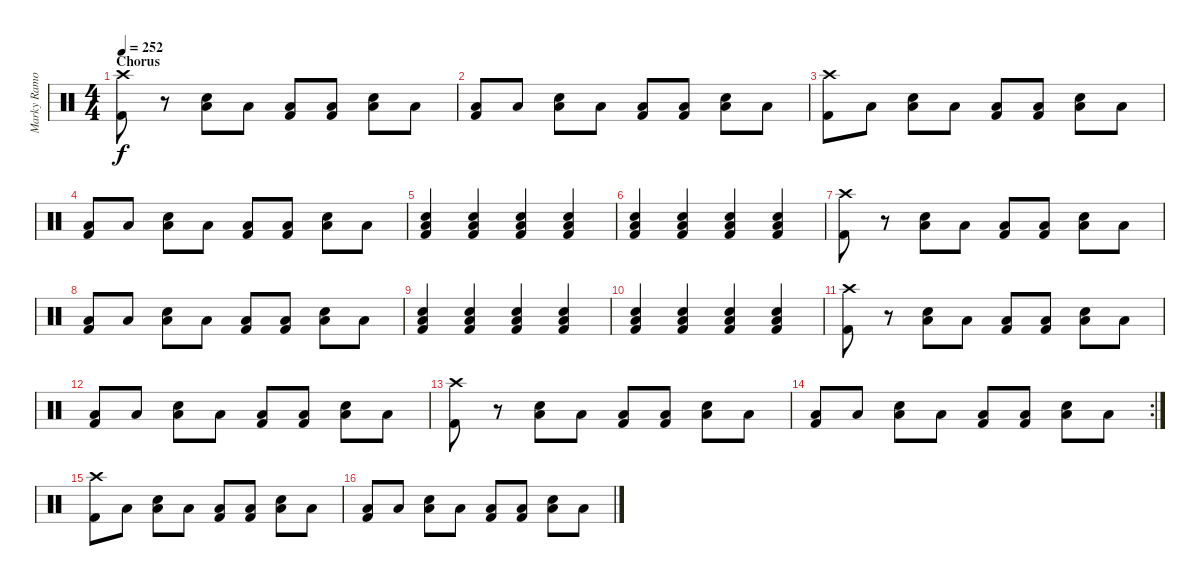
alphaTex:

\track ("Marky Ramone - Drums" "Marky Ramo") {instrument percussion}
\staff {score}
\articulation defaults
\ts (4 4)
\section ("" "Chorus")
\tempo 252
\clef neutral
\ks c
("Crash high (hit)" "Kick (hit) 2").8{dy f} r.8{volume 10} ("Low Floor Tom (hit)" "Snare (hit) 2").8 "Low Floor Tom (hit)".8{volume 10} ("Low Floor Tom (hit)" "Kick (hit) 2").8 ("Low Floor Tom (hit)" "Kick (hit) 2").8{volume 10} ("Low Floor Tom (hit)" "Snare (hit) 2").8 "Low Floor Tom (hit)".8{volume 10} |
("Low Floor Tom (hit)" "Kick (hit) 2").8 "Low Floor Tom (hit)".8{volume 10} ("Low Floor Tom (hit)" "Snare (hit) 2").8 "Low Floor Tom (hit)".8{volume 10} ("Low Floor Tom (hit)" "Kick (hit) 2").8 ("Low Floor Tom (hit)" "Kick (hit) 2").8{volume 10} ("Low Floor Tom (hit)" "Snare (hit) 2").8 "Low Floor Tom (hit)".8{volume 10} |
("Crash high (hit)" "Kick (hit) 2").8 "Low Floor Tom (hit)".8{volume 10} ("Low Floor Tom (hit)" "Snare (hit) 2").8 "Low Floor Tom (hit)".8{volume 10} ("Low Floor Tom (hit)" "Kick (hit) 2").8 ("Low Floor Tom (hit)" "Kick (hit) 2").8{volume 10} ("Low Floor Tom (hit)" "Snare (hit) 2").8 "Low Floor Tom (hit)".8{volume 10} |
("Low Floor Tom (hit)" "Kick (hit) 2").8 "Low Floor Tom (hit)".8{volume 10} ("Low Floor Tom (hit)" "Snare (hit) 2").8 "Low Floor Tom (hit)".8{volume 10} ("Low Floor Tom (hit)" "Kick (hit) 2").8 ("Low Floor Tom (hit)" "Kick (hit) 2").8{volume 10} ("Low Floor Tom (hit)" "Snare (hit) 2").8 "Low Floor Tom (hit)".8{volume 10} |
("Low Floor Tom (hit)" "Snare (hit) 2" "Kick (hit) 2").4 ("Low Floor Tom (hit)" "Snare (hit) 2" "Kick (hit) 2").4 ("Low Floor Tom (hit)" "Snare (hit) 2" "Kick (hit) 2").4 ("Low Floor Tom (hit)" "Snare (hit) 2" "Kick (hit) 2").4 |
("Low Floor Tom (hit)" "Snare (hit) 2" "Kick (hit) 2").4 ("Low Floor Tom (hit)" "Snare (hit) 2" "Kick (hit) 2").4 ("Low Floor Tom (hit)" "Snare (hit) 2" "Kick (hit) 2").4 ("Low Floor Tom (hit)" "Snare (hit) 2" "Kick (hit) 2").4 |
("Crash high (hit)" "Kick (hit) 2").8 r.8{volume 10} ("Low Floor Tom (hit)" "Snare (hit) 2").8 "Low Floor Tom (hit)".8{volume 10} ("Low Floor Tom (hit)" "Kick (hit) 2").8 ("Low Floor Tom (hit)" "Kick (hit) 2").8{volume 10} ("Low Floor Tom (hit)" "Snare (hit) 2").8 "Low Floor Tom (hit)".8{volume 10} |
("Low Floor Tom (hit)" "Kick (hit) 2").8 "Low Floor Tom (hit)".8{volume 10} ("Low Floor Tom (hit)" "Snare (hit) 2").8 "Low Floor Tom (hit)".8{volume 10} ("Low Floor Tom (hit)" "Kick (hit) 2").8 ("Low Floor Tom (hit)" "Kick (hit) 2").8{volume 10} ("Low Floor Tom (hit)" "Snare (hit) 2").8 "Low Floor Tom (hit)".8{volume 10} |
("Low Floor Tom (hit)" "Snare (hit) 2" "Kick (hit) 2").4 ("Low Floor Tom (hit)" "Snare (hit) 2" "Kick (hit) 2").4 ("Low Floor Tom (hit)" "Snare (hit) 2" "Kick (hit) 2").4 ("Low Floor Tom (hit)" "Snare (hit) 2" "Kick (hit) 2").4 |
("Low Floor Tom (hit)" "Snare (hit) 2" "Kick (hit) 2").4 ("Low Floor Tom (hit)" "Snare (hit) 2" "Kick (hit) 2").4 ("Low Floor Tom (hit)" "Snare (hit) 2" "Kick (hit) 2").4 ("Low Floor Tom (hit)" "Snare (hit) 2" "Kick (hit) 2").4 |
("Crash high (hit)" "Kick (hit) 2").8 r.8{volume 10} ("Low Floor Tom (hit)" "Snare (hit) 2").8 "Low Floor Tom (hit)".8{volume 10} ("Low Floor Tom (hit)" "Kick (hit) 2").8 ("Low Floor Tom (hit)" "Kick (hit) 2").8{volume 10} ("Low Floor Tom (hit)" "Snare (hit) 2").8 "Low Floor Tom (hit)".8{volume 10} |
("Low Floor Tom (hit)" "Kick (hit) 2").8 "Low Floor Tom (hit)".8{volume 10} ("Low Floor Tom (hit)" "Snare (hit) 2").8 "Low Floor Tom (hit)".8{volume 10} ("Low Floor Tom (hit)" "Kick (hit) 2").8 ("Low Floor Tom (hit)" "Kick (hit) 2").8{volume 10} ("Low Floor Tom (hit)" "Snare (hit) 2").8 "Low Floor Tom (hit)".8{volume 10} |
("Crash high (hit)" "Kick (hit) 2").8 r.8{volume 10} ("Low Floor Tom (hit)" "Snare (hit) 2").8 "Low Floor Tom (hit)".8{volume 10} ("Low Floor Tom (hit)" "Kick (hit) 2").8 ("Low Floor Tom (hit)" "Kick (hit) 2").8{volume 10} ("Low Floor Tom (hit)" "Snare (hit) 2").8 "Low Floor Tom (hit)".8{volume 10} |
\rc 2
("Low Floor Tom (hit)" "Kick (hit) 2").8 "Low Floor Tom (hit)".8{volume 10} ("Low Floor Tom (hit)" "Snare (hit) 2").8 "Low Floor Tom (hit)".8{volume 10} ("Low Floor Tom (hit)" "Kick (hit) 2").8 ("Low Floor Tom (hit)" "Kick (hit) 2").8{volume 10} ("Low Floor Tom (hit)" "Snare (hit) 2").8 "Low Floor Tom (hit)".8{volume 10} |
("Crash high (hit)" "Kick (hit) 2").8 "Low Floor Tom (hit)".8{volume 10} ("Low Floor Tom (hit)" "Snare (hit) 2").8 "Low Floor Tom (hit)".8{volume 10} ("Low Floor Tom (hit)" "Kick (hit) 2").8 ("Low Floor Tom (hit)" "Kick (hit) 2").8{volume 10} ("Low Floor Tom (hit)" "Snare (hit) 2").8 "Low Floor Tom (hit)".8{volume 10} |
("Low Floor Tom (hit)" "Kick (hit) 2").8 "Low Floor Tom (hit)".8{volume 10} ("Low Floor Tom (hit)" "Snare (hit) 2").8 "Low Floor Tom (hit)".8{volume 10} ("Low Floor Tom (hit)" "Kick (hit) 2").8 ("Low Floor Tom (hit)" "Kick (hit) 2").8{volume 10} ("Low Floor Tom (hit)" "Snare (hit) 2").8 "Low Floor Tom (hit)".8{volume 10}
